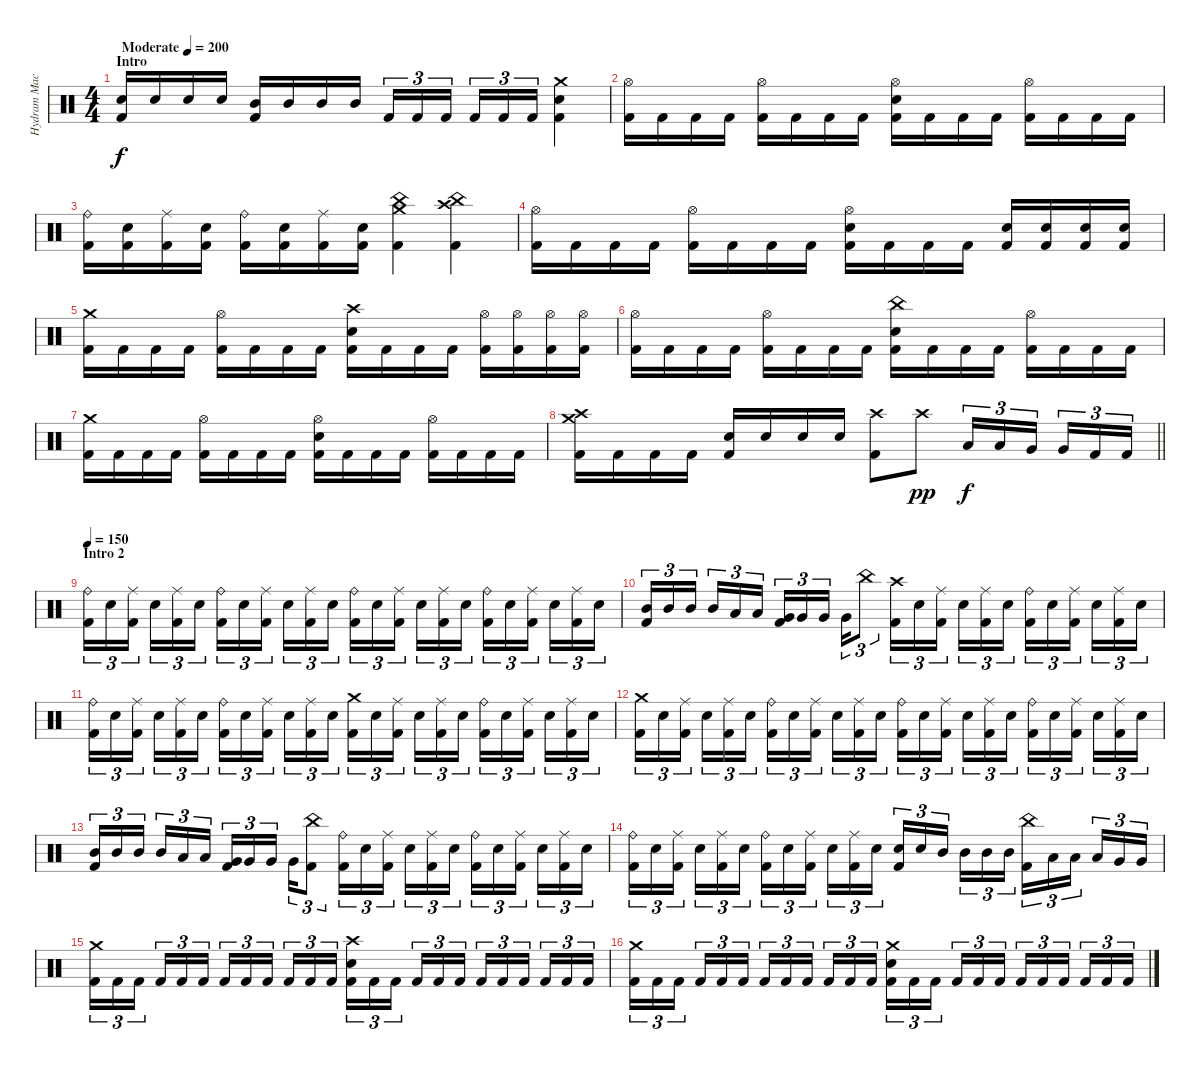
\track ("Hydram Machine" "Hydram Mac") {instrument percussion}
\staff {score}
\articulation defaults
\ts (4 4)
\section ("" "Intro")
\tempo (200 "Moderate")
\clef neutral
\ks c
("Electric Snare (hit)" "Kick (hit) 2").16{dy f} "Electric Snare (hit)".16 "Electric Snare (hit)".16 "Electric Snare (hit)".16 ("Mid Tom (hit)" "Kick (hit) 2").16 "Mid Tom (hit)".16 "Mid Tom (hit)".16 "Mid Tom (hit)".16 "Kick (hit) 2".16{tu (3 2)} "Kick (hit) 2".16{tu (3 2)} "Kick (hit) 2".16{tu (3 2) beam splitsecondary} "Kick (hit) 2".16{tu (3 2)} "Kick (hit) 2".16{tu (3 2)} "Kick (hit) 2".16{tu (3 2)} ("Crash medium (hit)" "Electric Snare (hit)" "Kick (hit) 2").4 |
("Hi-Hat (open)" "Kick (hit) 2").16 "Kick (hit) 2".16 "Kick (hit) 2".16 "Kick (hit) 2".16 ("Hi-Hat (open)" "Kick (hit) 2").16 "Kick (hit) 2".16 "Kick (hit) 2".16 "Kick (hit) 2".16 ("Hi-Hat (open)" "Electric Snare (hit)" "Kick (hit) 2").16 "Kick (hit) 2".16 "Kick (hit) 2".16 "Kick (hit) 2".16 ("Hi-Hat (open)" "Kick (hit) 2").16 "Kick (hit) 2".16 "Kick (hit) 2".16 "Kick (hit) 2".16 |
("Ride (bell)" "Kick (hit) 2").16 ("Electric Snare (hit)" "Kick (hit) 2").16 ("Ride (middle)" "Kick (hit) 2").16 ("Electric Snare (hit)" "Kick (hit) 2").16 ("Ride (bell)" "Kick (hit) 2").16 ("Electric Snare (hit)" "Kick (hit) 2").16 ("Ride (middle)" "Kick (hit) 2").16 ("Electric Snare (hit)" "Kick (hit) 2").16 ("China (hit)" "Crash medium (hit)" "Kick (hit) 2").4 ("China (hit)" "Crash high (hit)" "Kick (hit) 2").4 |
("Hi-Hat (open)" "Kick (hit) 2").16 "Kick (hit) 2".16 "Kick (hit) 2".16 "Kick (hit) 2".16 ("Hi-Hat (open)" "Kick (hit) 2").16 "Kick (hit) 2".16 "Kick (hit) 2".16 "Kick (hit) 2".16 ("Hi-Hat (open)" "Electric Snare (hit)" "Kick (hit) 2").16 "Kick (hit) 2".16 "Kick (hit) 2".16 "Kick (hit) 2".16 ("Electric Snare (hit)" "Kick (hit) 2").16 ("Electric Snare (hit)" "Kick (hit) 2").16 ("Electric Snare (hit)" "Kick (hit) 2").16 ("Electric Snare (hit)" "Kick (hit) 2").16 |
("Crash medium (hit)" "Kick (hit) 2").16 "Kick (hit) 2".16 "Kick (hit) 2".16 "Kick (hit) 2".16 ("Hi-Hat (open)" "Kick (hit) 2").16 "Kick (hit) 2".16 "Kick (hit) 2".16 "Kick (hit) 2".16 ("Crash high (hit)" "Electric Snare (hit)" "Kick (hit) 2").16 "Kick (hit) 2".16 "Kick (hit) 2".16 "Kick (hit) 2".16 ("Hi-Hat (open)" "Kick (hit) 2").16 ("Hi-Hat (open)" "Kick (hit) 2").16 ("Hi-Hat (open)" "Kick (hit) 2").16 ("Hi-Hat (open)" "Kick (hit) 2").16 |
("Hi-Hat (open)" "Kick (hit) 2").16 "Kick (hit) 2".16 "Kick (hit) 2".16 "Kick (hit) 2".16 ("Hi-Hat (open)" "Kick (hit) 2").16 "Kick (hit) 2".16 "Kick (hit) 2".16 "Kick (hit) 2".16 ("China (hit)" "Electric Snare (hit)" "Kick (hit) 2").16 "Kick (hit) 2".16 "Kick (hit) 2".16 "Kick (hit) 2".16 ("Hi-Hat (open)" "Kick (hit) 2").16 "Kick (hit) 2".16 "Kick (hit) 2".16 "Kick (hit) 2".16 |
("Crash medium (hit)" "Kick (hit) 2").16 "Kick (hit) 2".16 "Kick (hit) 2".16 "Kick (hit) 2".16 ("Hi-Hat (open)" "Kick (hit) 2").16 "Kick (hit) 2".16 "Kick (hit) 2".16 "Kick (hit) 2".16 ("Hi-Hat (open)" "Electric Snare (hit)" "Kick (hit) 2").16 "Kick (hit) 2".16 "Kick (hit) 2".16 "Kick (hit) 2".16 ("Hi-Hat (open)" "Kick (hit) 2").16 "Kick (hit) 2".16 "Kick (hit) 2".16 "Kick (hit) 2".16 |
\barLineRight lightlight
("Crash high (hit)" "Crash medium (hit)" "Kick (hit) 2").16 "Kick (hit) 2".16 "Kick (hit) 2".16 "Kick (hit) 2".16 ("Electric Snare (hit)" "Kick (hit) 2").16 "Electric Snare (hit)".16 "Electric Snare (hit)".16 "Electric Snare (hit)".16 ("Crash high (hit)" "Kick (hit) 2").8 "Crash high (hit)".8{dy pp} "Low Tom (hit)".16{tu (3 2) dy f} "Low Tom (hit)".16{tu (3 2)} "Very Low Tom (hit)".16{tu (3 2) beam splitsecondary} "Very Low Tom (hit)".16{tu (3 2)} "Kick (hit) 2".16{tu (3 2)} "Kick (hit) 2".16{tu (3 2)} |
\section ("" "Intro 2")
\tempo 150
("Ride (bell)" "Kick (hit) 2").16{tu (3 2)} "Electric Snare (hit)".16{tu (3 2)} ("Ride (middle)" "Kick (hit) 2").16{tu (3 2) beam splitsecondary} "Electric Snare (hit)".16{tu (3 2)} ("Ride (middle)" "Kick (hit) 2").16{tu (3 2)} "Electric Snare (hit)".16{tu (3 2)} ("Ride (bell)" "Kick (hit) 2").16{tu (3 2)} "Electric Snare (hit)".16{tu (3 2)} ("Ride (middle)" "Kick (hit) 2").16{tu (3 2) beam splitsecondary} "Electric Snare (hit)".16{tu (3 2)} ("Ride (middle)" "Kick (hit) 2").16{tu (3 2)} "Electric Snare (hit)".16{tu (3 2)} ("Ride (bell)" "Kick (hit) 2").16{tu (3 2)} "Electric Snare (hit)".16{tu (3 2)} ("Ride (middle)" "Kick (hit) 2").16{tu (3 2) beam splitsecondary} "Electric Snare (hit)".16{tu (3 2)} ("Ride (middle)" "Kick (hit) 2").16{tu (3 2)} "Electric Snare (hit)".16{tu (3 2)} ("Ride (bell)" "Kick (hit) 2").16{tu (3 2)} "Electric Snare (hit)".16{tu (3 2)} ("Ride (middle)" "Kick (hit) 2").16{tu (3 2) beam splitsecondary} "Electric Snare (hit)".16{tu (3 2)} ("Ride (middle)" "Kick (hit) 2").16{tu (3 2)} "Electric Snare (hit)".16{tu (3 2)} |
("Mid Tom (hit)" "Kick (hit) 2").16{tu (3 2)} "Mid Tom (hit)".16{tu (3 2)} "Mid Tom (hit)".16{tu (3 2) beam splitsecondary} "Mid Tom (hit)".16{tu (3 2)} "Low Tom (hit)".16{tu (3 2)} "Low Tom (hit)".16{tu (3 2)} ("Very Low Tom (hit)" "Kick (hit) 2").16{tu (3 2)} "Very Low Tom (hit)".16{tu (3 2)} "Very Low Tom (hit)".16{tu (3 2) beam splitsecondary} "Very Low Tom (hit)".16{tu (3 2)} "China (hit)".8{tu (3 2)} ("Crash high (hit)" "Kick (hit) 2").16{tu (3 2)} "Electric Snare (hit)".16{tu (3 2)} ("Ride (middle)" "Kick (hit) 2").16{tu (3 2) beam splitsecondary} "Electric Snare (hit)".16{tu (3 2)} ("Ride (middle)" "Kick (hit) 2").16{tu (3 2)} "Electric Snare (hit)".16{tu (3 2)} ("Ride (bell)" "Kick (hit) 2").16{tu (3 2)} "Electric Snare (hit)".16{tu (3 2)} ("Ride (middle)" "Kick (hit) 2").16{tu (3 2) beam splitsecondary} "Electric Snare (hit)".16{tu (3 2)} ("Ride (middle)" "Kick (hit) 2").16{tu (3 2)} "Electric Snare (hit)".16{tu (3 2)} |
("Ride (bell)" "Kick (hit) 2").16{tu (3 2)} "Electric Snare (hit)".16{tu (3 2)} ("Ride (middle)" "Kick (hit) 2").16{tu (3 2) beam splitsecondary} "Electric Snare (hit)".16{tu (3 2)} ("Ride (middle)" "Kick (hit) 2").16{tu (3 2)} "Electric Snare (hit)".16{tu (3 2)} ("Ride (bell)" "Kick (hit) 2").16{tu (3 2)} "Electric Snare (hit)".16{tu (3 2)} ("Ride (middle)" "Kick (hit) 2").16{tu (3 2) beam splitsecondary} "Electric Snare (hit)".16{tu (3 2)} ("Ride (middle)" "Kick (hit) 2").16{tu (3 2)} "Electric Snare (hit)".16{tu (3 2)} ("Crash medium (hit)" "Kick (hit) 2").16{tu (3 2)} "Electric Snare (hit)".16{tu (3 2)} ("Ride (middle)" "Kick (hit) 2").16{tu (3 2) beam splitsecondary} "Electric Snare (hit)".16{tu (3 2)} ("Ride (middle)" "Kick (hit) 2").16{tu (3 2)} "Electric Snare (hit)".16{tu (3 2)} ("Ride (bell)" "Kick (hit) 2").16{tu (3 2)} "Electric Snare (hit)".16{tu (3 2)} ("Ride (middle)" "Kick (hit) 2").16{tu (3 2) beam splitsecondary} "Electric Snare (hit)".16{tu (3 2)} ("Ride (middle)" "Kick (hit) 2").16{tu (3 2)} "Electric Snare (hit)".16{tu (3 2)} |
("Crash medium (hit)" "Kick (hit) 2").16{tu (3 2)} "Electric Snare (hit)".16{tu (3 2)} ("Ride (middle)" "Kick (hit) 2").16{tu (3 2) beam splitsecondary} "Electric Snare (hit)".16{tu (3 2)} ("Ride (middle)" "Kick (hit) 2").16{tu (3 2)} "Electric Snare (hit)".16{tu (3 2)} ("Ride (bell)" "Kick (hit) 2").16{tu (3 2)} "Electric Snare (hit)".16{tu (3 2)} ("Ride (middle)" "Kick (hit) 2").16{tu (3 2) beam splitsecondary} "Electric Snare (hit)".16{tu (3 2)} ("Ride (middle)" "Kick (hit) 2").16{tu (3 2)} "Electric Snare (hit)".16{tu (3 2)} ("Ride (bell)" "Kick (hit) 2").16{tu (3 2)} "Electric Snare (hit)".16{tu (3 2)} ("Ride (middle)" "Kick (hit) 2").16{tu (3 2) beam splitsecondary} "Electric Snare (hit)".16{tu (3 2)} ("Ride (middle)" "Kick (hit) 2").16{tu (3 2)} "Electric Snare (hit)".16{tu (3 2)} ("Ride (bell)" "Kick (hit) 2").16{tu (3 2)} "Electric Snare (hit)".16{tu (3 2)} ("Ride (middle)" "Kick (hit) 2").16{tu (3 2) beam splitsecondary} "Electric Snare (hit)".16{tu (3 2)} ("Ride (middle)" "Kick (hit) 2").16{tu (3 2)} "Electric Snare (hit)".16{tu (3 2)} |
("Mid Tom (hit)" "Kick (hit) 2").16{tu (3 2)} "Mid Tom (hit)".16{tu (3 2)} "Mid Tom (hit)".16{tu (3 2) beam splitsecondary} "Mid Tom (hit)".16{tu (3 2)} "Low Tom (hit)".16{tu (3 2)} "Low Tom (hit)".16{tu (3 2)} ("Very Low Tom (hit)" "Kick (hit) 2").16{tu (3 2)} "Very Low Tom (hit)".16{tu (3 2)} "Very Low Tom (hit)".16{tu (3 2) beam splitsecondary} "Very Low Tom (hit)".16{tu (3 2)} ("China (hit)" "Kick (hit) 2").8{tu (3 2)} ("Ride (bell)" "Kick (hit) 2").16{tu (3 2)} "Electric Snare (hit)".16{tu (3 2)} ("Ride (middle)" "Kick (hit) 2").16{tu (3 2) beam splitsecondary} "Electric Snare (hit)".16{tu (3 2)} ("Ride (middle)" "Kick (hit) 2").16{tu (3 2)} "Electric Snare (hit)".16{tu (3 2)} ("Ride (bell)" "Kick (hit) 2").16{tu (3 2)} "Electric Snare (hit)".16{tu (3 2)} ("Ride (middle)" "Kick (hit) 2").16{tu (3 2) beam splitsecondary} "Electric Snare (hit)".16{tu (3 2)} ("Ride (middle)" "Kick (hit) 2").16{tu (3 2)} "Electric Snare (hit)".16{tu (3 2)} |
("Ride (bell)" "Kick (hit) 2").16{tu (3 2)} "Electric Snare (hit)".16{tu (3 2)} ("Ride (middle)" "Kick (hit) 2").16{tu (3 2) beam splitsecondary} "Electric Snare (hit)".16{tu (3 2)} ("Ride (middle)" "Kick (hit) 2").16{tu (3 2)} "Electric Snare (hit)".16{tu (3 2)} ("Ride (bell)" "Kick (hit) 2").16{tu (3 2)} "Electric Snare (hit)".16{tu (3 2)} ("Ride (middle)" "Kick (hit) 2").16{tu (3 2) beam splitsecondary} "Electric Snare (hit)".16{tu (3 2)} ("Ride (middle)" "Kick (hit) 2").16{tu (3 2)} "Electric Snare (hit)".16{tu (3 2)} ("Electric Snare (hit)" "Kick (hit) 2").16{tu (3 2)} "Electric Snare (hit)".16{tu (3 2)} "Mid Tom (hit)".16{tu (3 2) beam splitsecondary} "Mid Tom (hit)".16{tu (3 2)} "Mid Tom (hit)".16{tu (3 2)} "Mid Tom (hit)".16{tu (3 2)} ("China (hit)" "Kick (hit) 2").16{tu (3 2)} "Low Tom (hit)".16{tu (3 2)} "Low Tom (hit)".16{tu (3 2) beam splitsecondary} "Low Tom (hit)".16{tu (3 2)} "Very Low Tom (hit)".16{tu (3 2)} "Very Low Tom (hit)".16{tu (3 2)} |
("Crash medium (hit)" "Kick (hit) 2").16{tu (3 2)} "Kick (hit) 2".16{tu (3 2)} "Kick (hit) 2".16{tu (3 2) beam splitsecondary} "Kick (hit) 2".16{tu (3 2)} "Kick (hit) 2".16{tu (3 2)} "Kick (hit) 2".16{tu (3 2)} "Kick (hit) 2".16{tu (3 2)} "Kick (hit) 2".16{tu (3 2)} "Kick (hit) 2".16{tu (3 2) beam splitsecondary} "Kick (hit) 2".16{tu (3 2)} "Kick (hit) 2".16{tu (3 2)} "Kick (hit) 2".16{tu (3 2)} ("Crash high (hit)" "Electric Snare (hit)" "Kick (hit) 2").16{tu (3 2)} "Kick (hit) 2".16{tu (3 2)} "Kick (hit) 2".16{tu (3 2) beam splitsecondary} "Kick (hit) 2".16{tu (3 2)} "Kick (hit) 2".16{tu (3 2)} "Kick (hit) 2".16{tu (3 2)} "Kick (hit) 2".16{tu (3 2)} "Kick (hit) 2".16{tu (3 2)} "Kick (hit) 2".16{tu (3 2) beam splitsecondary} "Kick (hit) 2".16{tu (3 2)} "Kick (hit) 2".16{tu (3 2)} "Kick (hit) 2".16{tu (3 2)} |
("Crash medium (hit)" "Kick (hit) 2").16{tu (3 2)} "Kick (hit) 2".16{tu (3 2)} "Kick (hit) 2".16{tu (3 2) beam splitsecondary} "Kick (hit) 2".16{tu (3 2)} "Kick (hit) 2".16{tu (3 2)} "Kick (hit) 2".16{tu (3 2)} "Kick (hit) 2".16{tu (3 2)} "Kick (hit) 2".16{tu (3 2)} "Kick (hit) 2".16{tu (3 2) beam splitsecondary} "Kick (hit) 2".16{tu (3 2)} "Kick (hit) 2".16{tu (3 2)} "Kick (hit) 2".16{tu (3 2)} ("Crash medium (hit)" "Electric Snare (hit)" "Kick (hit) 2").16{tu (3 2)} "Kick (hit) 2".16{tu (3 2)} "Kick (hit) 2".16{tu (3 2) beam splitsecondary} "Kick (hit) 2".16{tu (3 2)} "Kick (hit) 2".16{tu (3 2)} "Kick (hit) 2".16{tu (3 2)} "Kick (hit) 2".16{tu (3 2)} "Kick (hit) 2".16{tu (3 2)} "Kick (hit) 2".16{tu (3 2) beam splitsecondary} "Kick (hit) 2".16{tu (3 2)} "Kick (hit) 2".16{tu (3 2)} "Kick (hit) 2".16{tu (3 2)}
